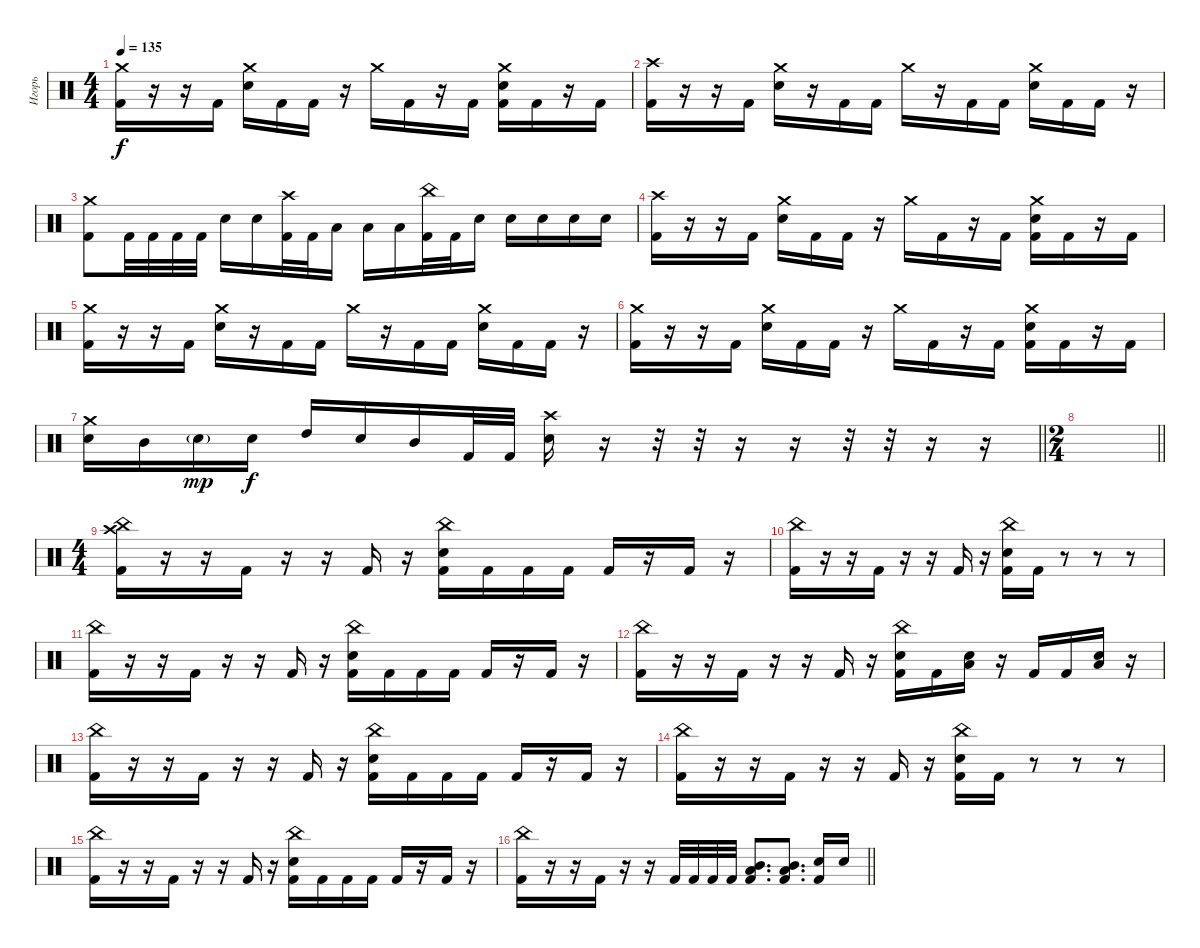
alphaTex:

\track ("Игорь" "Игорь") {instrument percussion}
\staff {score}
\articulation defaults
\ts (4 4)
\tempo 135
\clef neutral
\ks c
("Crash medium (hit)" "Kick (hit) 2").16{dy f} r.16 r.16 "Kick (hit) 2".16 ("Crash medium (hit)" "Electric Snare (hit)").16 "Kick (hit) 2".16 "Kick (hit) 2".16 r.16 "Crash medium (hit)".16 "Kick (hit) 2".16 r.16 "Kick (hit) 2".16 ("Crash medium (hit)" "Electric Snare (hit)" "Kick (hit) 2").16 "Kick (hit) 2".16 r.16 "Kick (hit) 2".16 |
("Crash high (hit)" "Kick (hit) 2").16 r.16 r.16 "Kick (hit) 2".16 ("Crash medium (hit)" "Electric Snare (hit)").16 r.16 "Kick (hit) 2".16 "Kick (hit) 2".16 "Crash medium (hit)".16 r.16 "Kick (hit) 2".16 "Kick (hit) 2".16 ("Crash medium (hit)" "Electric Snare (hit)").16 "Kick (hit) 2".16 "Kick (hit) 2".16 r.16 |
("Crash medium (hit)" "Kick (hit) 2").8 "Kick (hit) 2".32 "Kick (hit) 2".32 "Kick (hit) 2".32 "Kick (hit) 2".32 "Electric Snare (hit)".16 "Electric Snare (hit)".16 ("Crash high (hit)" "Kick (hit) 2").32 "Kick (hit) 2".32 "Low Tom (hit)".16 "Low Tom (hit)".16 "Low Tom (hit)".16 ("China (hit)" "Kick (hit) 2").32 "Kick (hit) 2".32 "Electric Snare (hit)".16 "Electric Snare (hit)".16 "Electric Snare (hit)".16 "Electric Snare (hit)".16 "Electric Snare (hit)".16 |
("Crash high (hit)" "Kick (hit) 2").16 r.16 r.16 "Kick (hit) 2".16 ("Crash medium (hit)" "Electric Snare (hit)").16 "Kick (hit) 2".16 "Kick (hit) 2".16 r.16 "Crash medium (hit)".16 "Kick (hit) 2".16 r.16 "Kick (hit) 2".16 ("Crash medium (hit)" "Electric Snare (hit)" "Kick (hit) 2").16 "Kick (hit) 2".16 r.16 "Kick (hit) 2".16 |
("Crash medium (hit)" "Kick (hit) 2").16 r.16 r.16 "Kick (hit) 2".16 ("Crash medium (hit)" "Electric Snare (hit)").16 r.16 "Kick (hit) 2".16 "Kick (hit) 2".16 "Crash medium (hit)".16 r.16 "Kick (hit) 2".16 "Kick (hit) 2".16 ("Crash medium (hit)" "Electric Snare (hit)").16 "Kick (hit) 2".16 "Kick (hit) 2".16 r.16 |
("Crash medium (hit)" "Kick (hit) 2").16 r.16 r.16 "Kick (hit) 2".16 ("Crash medium (hit)" "Electric Snare (hit)").16 "Kick (hit) 2".16 "Kick (hit) 2".16 r.16 "Crash medium (hit)".16 "Kick (hit) 2".16 r.16 "Kick (hit) 2".16 ("Crash medium (hit)" "Electric Snare (hit)" "Kick (hit) 2").16 "Kick (hit) 2".16 r.16 "Kick (hit) 2".16 |
\barLineRight lightlight
("Crash medium (hit)" "Electric Snare (hit)").16 "Mid Tom (hit)".16 "Electric Snare (hit)"{g}.16{dy mp} "Electric Snare (hit)".16{dy f} "High Tom (hit)".16 "Electric Snare (hit)".16 "Mid Tom (hit)".16 "Kick (hit) 2".32 "Kick (hit) 2".32 ("Crash high (hit)" "Electric Snare (hit)").16 r.16 r.32 r.32 r.16 r.16 r.32 r.32 r.16 r.16 |
\ts (2 4)
\barLineRight lightlight
|
\ts (4 4)
("China (hit)" "Crash high (hit)" "Kick (hit) 2").16 r.16 r.16 "Kick (hit) 2".16 r.16 r.16 "Kick (hit) 2".16 r.16 ("China (hit)" "Electric Snare (hit)" "Kick (hit) 2").16 "Kick (hit) 2".16 "Kick (hit) 2".16 "Kick (hit) 2".16 "Kick (hit) 2".16 r.16 "Kick (hit) 2".16 r.16 |
("China (hit)" "Kick (hit) 2").16 r.16 r.16 "Kick (hit) 2".16 r.16 r.16 "Kick (hit) 2".16 r.16 ("China (hit)" "Electric Snare (hit)" "Kick (hit) 2").16 "Kick (hit) 2".16 r.8 r.8 r.8 |
("China (hit)" "Kick (hit) 2").16 r.16 r.16 "Kick (hit) 2".16 r.16 r.16 "Kick (hit) 2".16 r.16 ("China (hit)" "Electric Snare (hit)" "Kick (hit) 2").16 "Kick (hit) 2".16 "Kick (hit) 2".16 "Kick (hit) 2".16 "Kick (hit) 2".16 r.16 "Kick (hit) 2".16 r.16 |
("China (hit)" "Kick (hit) 2").16 r.16 r.16 "Kick (hit) 2".16 r.16 r.16 "Kick (hit) 2".16 r.16 ("China (hit)" "Electric Snare (hit)" "Kick (hit) 2").16 "Kick (hit) 2".16 ("Low Tom (hit)" "Electric Snare (hit)").16 r.16 "Kick (hit) 2".16 "Kick (hit) 2".16 ("Low Tom (hit)" "Electric Snare (hit)").16 r.16 |
("China (hit)" "Kick (hit) 2").16 r.16 r.16 "Kick (hit) 2".16 r.16 r.16 "Kick (hit) 2".16 r.16 ("China (hit)" "Electric Snare (hit)" "Kick (hit) 2").16 "Kick (hit) 2".16 "Kick (hit) 2".16 "Kick (hit) 2".16 "Kick (hit) 2".16 r.16 "Kick (hit) 2".16 r.16 |
("China (hit)" "Kick (hit) 2").16 r.16 r.16 "Kick (hit) 2".16 r.16 r.16 "Kick (hit) 2".16 r.16 ("China (hit)" "Electric Snare (hit)" "Kick (hit) 2").16 "Kick (hit) 2".16 r.8 r.8 r.8 |
("China (hit)" "Kick (hit) 2").16 r.16 r.16 "Kick (hit) 2".16 r.16 r.16 "Kick (hit) 2".16 r.16 ("China (hit)" "Electric Snare (hit)" "Kick (hit) 2").16 "Kick (hit) 2".16 "Kick (hit) 2".16 "Kick (hit) 2".16 "Kick (hit) 2".16 r.16 "Kick (hit) 2".16 r.16 |
\barLineRight lightlight
("China (hit)" "Kick (hit) 2").16 r.16 r.16 "Kick (hit) 2".16 r.16 r.16 "Kick (hit) 2".32 "Kick (hit) 2".32 "Kick (hit) 2".32 "Kick (hit) 2".32 ("Mid Tom (hit)" "Low Tom (hit)" "Kick (hit) 2").8{d} ("Mid Tom (hit)" "Low Tom (hit)" "Kick (hit) 2").8{d} ("Electric Snare (hit)" "Kick (hit) 2").16 "Electric Snare (hit)".16
